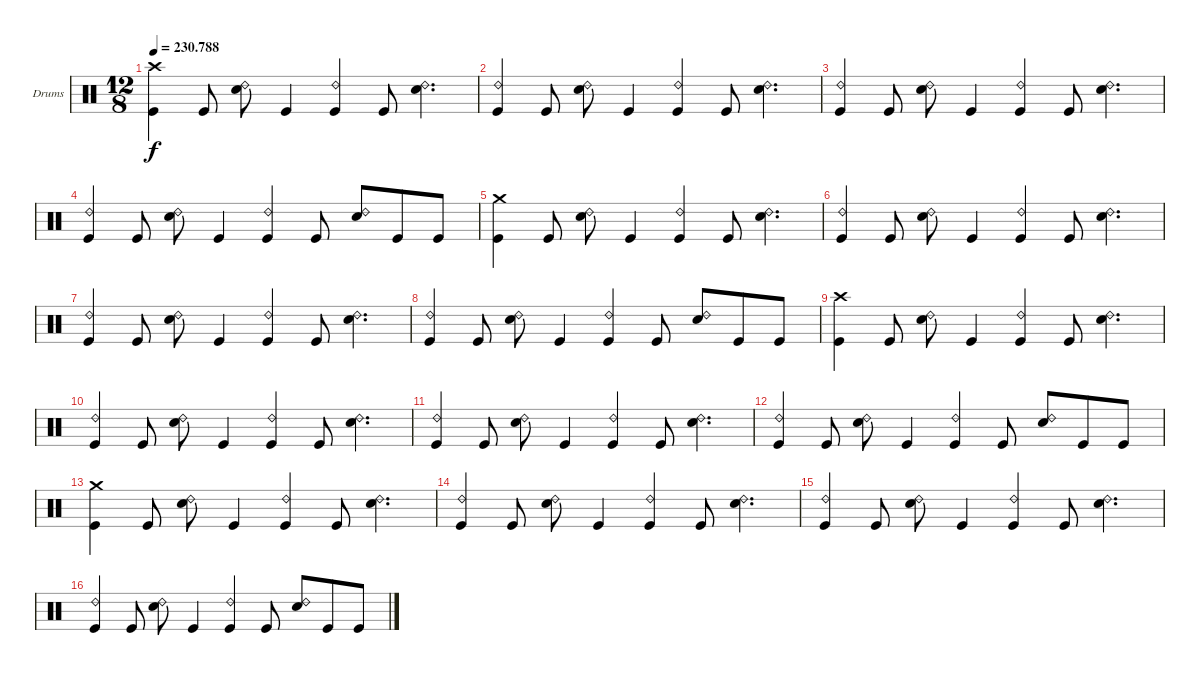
\bracketExtendMode groupsimilarinstruments
\firstSystemTrackNameOrientation horizontal
\otherSystemsTrackNameOrientation horizontal
\track ("Ударные" "Drums") {instrument percussion}
\staff {score}
\articulation defaults
\ts (12 8)
\tempo
230.788
\accidentals auto
\clef neutral
\ottava regular
\simile none
\ks c
("Crash high (hit)" "Kick (hit)").4{dy f} "Kick (hit)".8 ("Ride (bell) 2" "Snare (hit) 2").8 "Kick (hit)".4 ("Ride (bell) 2" "Kick (hit)").4 "Kick (hit)".8 ("Ride (bell) 2" "Snare (hit) 2").4{d} |
("Ride (bell) 2" "Kick (hit)").4 "Kick (hit)".8 ("Ride (bell) 2" "Snare (hit) 2").8 "Kick (hit)".4 ("Ride (bell) 2" "Kick (hit)").4 "Kick (hit)".8 ("Ride (bell) 2" "Snare (hit) 2").4{d} |
("Kick (hit)" "Ride (bell) 2").4 "Kick (hit)".8 ("Ride (bell) 2" "Snare (hit) 2").8 "Kick (hit)".4 ("Kick (hit)" "Ride (bell) 2").4 "Kick (hit)".8 ("Ride (bell) 2" "Snare (hit) 2").4{d} |
("Kick (hit)" "Ride (bell) 2").4 "Kick (hit)".8 ("Ride (bell) 2" "Snare (hit) 2").8 "Kick (hit)".4 ("Ride (bell) 2" "Kick (hit)").4 "Kick (hit)".8 ("Ride (bell) 2" "Snare (hit) 2").8 "Kick (hit)".8 "Kick (hit)".8 |
("Crash medium (hit)" "Kick (hit)").4 "Kick (hit)".8 ("Ride (bell) 2" "Snare (hit) 2").8 "Kick (hit)".4 ("Ride (bell) 2" "Kick (hit)").4 "Kick (hit)".8 ("Ride (bell) 2" "Snare (hit) 2").4{d} |
("Ride (bell) 2" "Kick (hit)").4 "Kick (hit)".8 ("Ride (bell) 2" "Snare (hit) 2").8 "Kick (hit)".4 ("Ride (bell) 2" "Kick (hit)").4 "Kick (hit)".8 ("Ride (bell) 2" "Snare (hit) 2").4{d} |
("Kick (hit)" "Ride (bell) 2").4 "Kick (hit)".8 ("Ride (bell) 2" "Snare (hit) 2").8 "Kick (hit)".4 ("Kick (hit)" "Ride (bell) 2").4 "Kick (hit)".8 ("Ride (bell) 2" "Snare (hit) 2").4{d} |
("Kick (hit)" "Ride (bell) 2").4 "Kick (hit)".8 ("Ride (bell) 2" "Snare (hit) 2").8 "Kick (hit)".4 ("Ride (bell) 2" "Kick (hit)").4 "Kick (hit)".8 ("Ride (bell) 2" "Snare (hit) 2").8 "Kick (hit)".8 "Kick (hit)".8 |
("Crash high (hit)" "Kick (hit)").4 "Kick (hit)".8 ("Ride (bell) 2" "Snare (hit) 2").8 "Kick (hit)".4 ("Ride (bell) 2" "Kick (hit)").4 "Kick (hit)".8 ("Ride (bell) 2" "Snare (hit) 2").4{d} |
("Ride (bell) 2" "Kick (hit)").4 "Kick (hit)".8 ("Ride (bell) 2" "Snare (hit) 2").8 "Kick (hit)".4 ("Ride (bell) 2" "Kick (hit)").4 "Kick (hit)".8 ("Ride (bell) 2" "Snare (hit) 2").4{d} |
("Kick (hit)" "Ride (bell) 2").4 "Kick (hit)".8 ("Ride (bell) 2" "Snare (hit) 2").8 "Kick (hit)".4 ("Kick (hit)" "Ride (bell) 2").4 "Kick (hit)".8 ("Ride (bell) 2" "Snare (hit) 2").4{d} |
("Kick (hit)" "Ride (bell) 2").4 "Kick (hit)".8 ("Ride (bell) 2" "Snare (hit) 2").8 "Kick (hit)".4 ("Ride (bell) 2" "Kick (hit)").4 "Kick (hit)".8 ("Ride (bell) 2" "Snare (hit) 2").8 "Kick (hit)".8 "Kick (hit)".8 |
("Crash medium (hit)" "Kick (hit)").4 "Kick (hit)".8 ("Ride (bell) 2" "Snare (hit) 2").8 "Kick (hit)".4 ("Ride (bell) 2" "Kick (hit)").4 "Kick (hit)".8 ("Ride (bell) 2" "Snare (hit) 2").4{d} |
("Ride (bell) 2" "Kick (hit)").4 "Kick (hit)".8 ("Ride (bell) 2" "Snare (hit) 2").8 "Kick (hit)".4 ("Ride (bell) 2" "Kick (hit)").4 "Kick (hit)".8 ("Ride (bell) 2" "Snare (hit) 2").4{d} |
("Kick (hit)" "Ride (bell) 2").4 "Kick (hit)".8 ("Ride (bell) 2" "Snare (hit) 2").8 "Kick (hit)".4 ("Kick (hit)" "Ride (bell) 2").4 "Kick (hit)".8 ("Ride (bell) 2" "Snare (hit) 2").4{d} |
("Kick (hit)" "Ride (bell) 2").4 "Kick (hit)".8 ("Ride (bell) 2" "Snare (hit) 2").8 "Kick (hit)".4 ("Ride (bell) 2" "Kick (hit)").4 "Kick (hit)".8 ("Ride (bell) 2" "Snare (hit) 2").8 "Kick (hit)".8 "Kick (hit)".8
